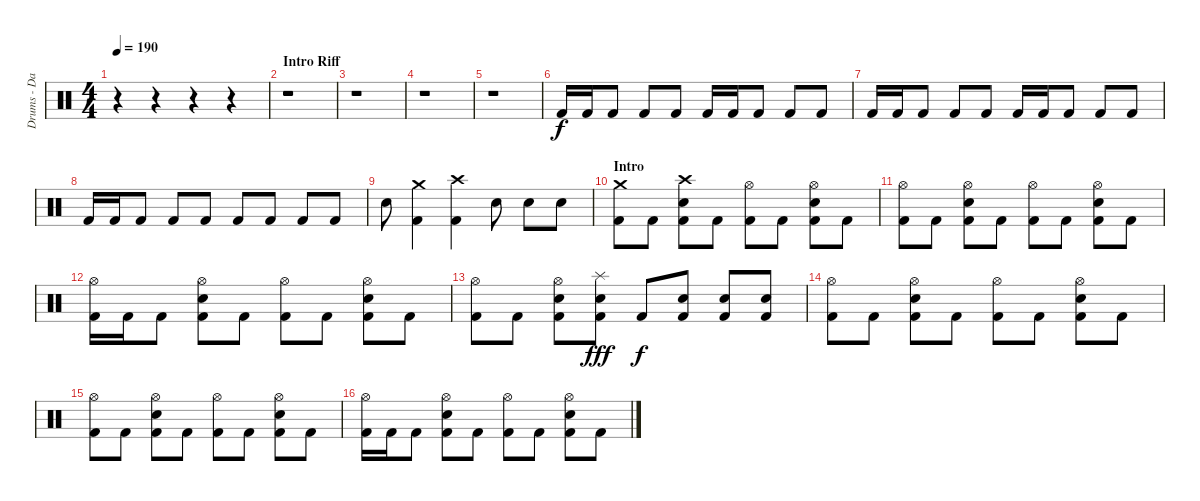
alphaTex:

\track ("Drums - Daniel Zimmermann" "Drums - Da") {instrument percussion}
\staff {score}
\articulation defaults
\ts (4 4)
\tempo 190
\clef neutral
\ks c
r.4{dy f} r.4 r.4 r.4 |
\section ("" "Intro Riff")
r.1 |
r.1 |
r.1 |
r.1 |
"Kick (hit) 2".16 "Kick (hit) 2".16 "Kick (hit) 2".8 "Kick (hit) 2".8 "Kick (hit) 2".8 "Kick (hit) 2".16 "Kick (hit) 2".16 "Kick (hit) 2".8 "Kick (hit) 2".8 "Kick (hit) 2".8 |
"Kick (hit) 2".16 "Kick (hit) 2".16 "Kick (hit) 2".8 "Kick (hit) 2".8 "Kick (hit) 2".8 "Kick (hit) 2".16 "Kick (hit) 2".16 "Kick (hit) 2".8 "Kick (hit) 2".8 "Kick (hit) 2".8 |
"Kick (hit) 2".16 "Kick (hit) 2".16 "Kick (hit) 2".8 "Kick (hit) 2".8 "Kick (hit) 2".8 "Kick (hit) 2".8 "Kick (hit) 2".8 "Kick (hit) 2".8 "Kick (hit) 2".8 |
"Electric Snare (hit)".8 ("Kick (hit) 2" "Crash medium (hit)").4 ("Kick (hit) 2" "Crash high (hit)").4 "Electric Snare (hit)".8 "Electric Snare (hit)".8 "Electric Snare (hit)".8 |
\section ("" "Intro")
("Kick (hit) 2" "Crash medium (hit)").8 "Kick (hit) 2".8 ("Kick (hit) 2" "Electric Snare (hit)" "Crash high (hit)").8 "Kick (hit) 2".8 ("Kick (hit) 2" "Hi-Hat (open)").8 "Kick (hit) 2".8 ("Kick (hit) 2" "Electric Snare (hit)" "Hi-Hat (open)").8 "Kick (hit) 2".8 |
("Kick (hit) 2" "Hi-Hat (open)").8 "Kick (hit) 2".8 ("Kick (hit) 2" "Electric Snare (hit)" "Hi-Hat (open)").8 "Kick (hit) 2".8 ("Kick (hit) 2" "Hi-Hat (open)").8 "Kick (hit) 2".8 ("Kick (hit) 2" "Electric Snare (hit)" "Hi-Hat (open)").8 "Kick (hit) 2".8 |
("Kick (hit) 2" "Hi-Hat (open)").16 "Kick (hit) 2".16 "Kick (hit) 2".8 ("Kick (hit) 2" "Electric Snare (hit)" "Hi-Hat (open)").8 "Kick (hit) 2".8 ("Kick (hit) 2" "Hi-Hat (open)").8 "Kick (hit) 2".8 ("Kick (hit) 2" "Electric Snare (hit)" "Hi-Hat (open)").8 "Kick (hit) 2".8 |
("Kick (hit) 2" "Hi-Hat (open)").8 "Kick (hit) 2".8 ("Kick (hit) 2" "Electric Snare (hit)" "Hi-Hat (open)").8 ("Kick (hit) 2" "Electric Snare (hit)" "Splash (hit)").8{dy fff} "Kick (hit) 2".8{dy f} ("Kick (hit) 2" "Electric Snare (hit)").8 ("Kick (hit) 2" "Electric Snare (hit)").8 ("Kick (hit) 2" "Electric Snare (hit)").8 |
("Kick (hit) 2" "Hi-Hat (open)").8 "Kick (hit) 2".8 ("Kick (hit) 2" "Electric Snare (hit)" "Hi-Hat (open)").8 "Kick (hit) 2".8 ("Kick (hit) 2" "Hi-Hat (open)").8 "Kick (hit) 2".8 ("Kick (hit) 2" "Electric Snare (hit)" "Hi-Hat (open)").8 "Kick (hit) 2".8 |
("Kick (hit) 2" "Hi-Hat (open)").8 "Kick (hit) 2".8 ("Kick (hit) 2" "Electric Snare (hit)" "Hi-Hat (open)").8 "Kick (hit) 2".8 ("Kick (hit) 2" "Hi-Hat (open)").8 "Kick (hit) 2".8 ("Kick (hit) 2" "Electric Snare (hit)" "Hi-Hat (open)").8 "Kick (hit) 2".8 |
("Kick (hit) 2" "Hi-Hat (open)").16 "Kick (hit) 2".16 "Kick (hit) 2".8 ("Kick (hit) 2" "Electric Snare (hit)" "Hi-Hat (open)").8 "Kick (hit) 2".8 ("Kick (hit) 2" "Hi-Hat (open)").8 "Kick (hit) 2".8 ("Kick (hit) 2" "Electric Snare (hit)" "Hi-Hat (open)").8 "Kick (hit) 2".8
